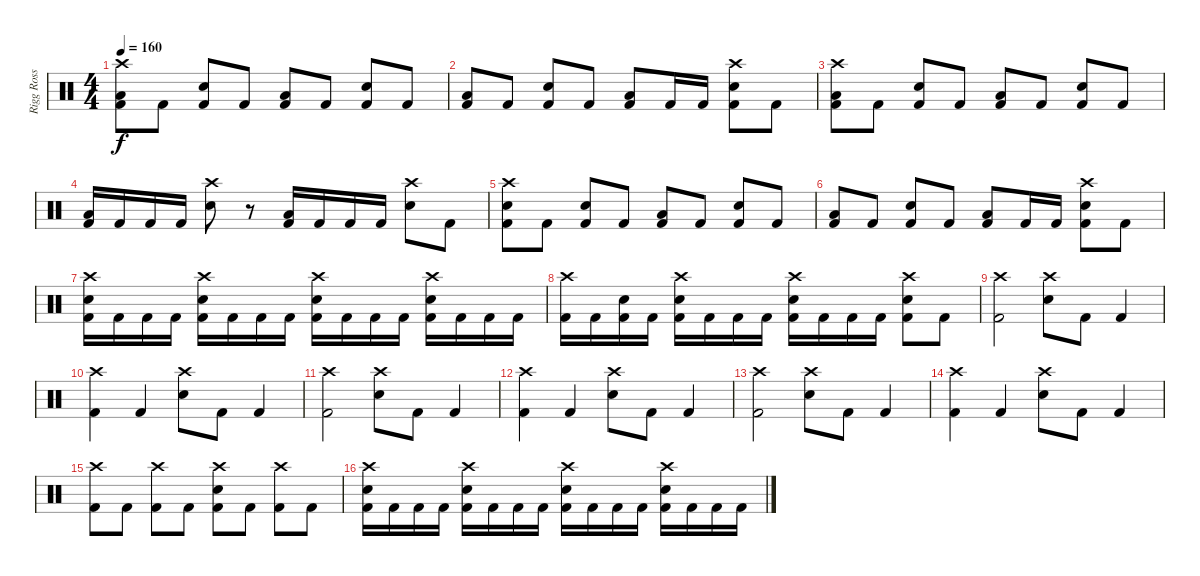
\track ("Rigg Ross" "Rigg Ross") {instrument percussion}
\staff {score}
\articulation defaults
\ts (4 4)
\tempo 160
\clef neutral
\ks c
("Crash high (hit)" "Low Tom (hit)" "Kick (hit) 2").8{dy f} "Kick (hit) 2".8 ("Electric Snare (hit)" "Kick (hit) 2").8 "Kick (hit) 2".8 ("Low Tom (hit)" "Kick (hit) 2").8 "Kick (hit) 2".8 ("Electric Snare (hit)" "Kick (hit) 2").8 "Kick (hit) 2".8 |
("Low Tom (hit)" "Kick (hit) 2").8 "Kick (hit) 2".8 ("Electric Snare (hit)" "Kick (hit) 2").8 "Kick (hit) 2".8 ("Low Tom (hit)" "Kick (hit) 2").8 "Kick (hit) 2".16 "Kick (hit) 2".16 ("Crash high (hit)" "Electric Snare (hit)" "Kick (hit) 2").8 "Kick (hit) 2".8 |
("Crash high (hit)" "Low Tom (hit)" "Kick (hit) 2").8 "Kick (hit) 2".8 ("Electric Snare (hit)" "Kick (hit) 2").8 "Kick (hit) 2".8 ("Low Tom (hit)" "Kick (hit) 2").8 "Kick (hit) 2".8 ("Electric Snare (hit)" "Kick (hit) 2").8 "Kick (hit) 2".8 |
("Low Tom (hit)" "Kick (hit) 2").16 "Kick (hit) 2".16 "Kick (hit) 2".16 "Kick (hit) 2".16 ("Crash high (hit)" "Electric Snare (hit)").8 r.8 ("Low Tom (hit)" "Kick (hit) 2").16 "Kick (hit) 2".16 "Kick (hit) 2".16 "Kick (hit) 2".16 ("Crash high (hit)" "Electric Snare (hit)").8 "Kick (hit) 2".8 |
("Crash high (hit)" "Electric Snare (hit)" "Kick (hit) 2").8 "Kick (hit) 2".8 ("Electric Snare (hit)" "Kick (hit) 2").8 "Kick (hit) 2".8 ("Low Tom (hit)" "Kick (hit) 2").8 "Kick (hit) 2".8 ("Electric Snare (hit)" "Kick (hit) 2").8 "Kick (hit) 2".8 |
("Low Tom (hit)" "Kick (hit) 2").8 "Kick (hit) 2".8 ("Electric Snare (hit)" "Kick (hit) 2").8 "Kick (hit) 2".8 ("Low Tom (hit)" "Kick (hit) 2").8 "Kick (hit) 2".16 "Kick (hit) 2".16 ("Crash high (hit)" "Electric Snare (hit)" "Kick (hit) 2").8 "Kick (hit) 2".8 |
("Crash high (hit)" "Electric Snare (hit)" "Kick (hit) 2").16 "Kick (hit) 2".16 "Kick (hit) 2".16 "Kick (hit) 2".16 ("Crash high (hit)" "Electric Snare (hit)" "Kick (hit) 2").16 "Kick (hit) 2".16 "Kick (hit) 2".16 "Kick (hit) 2".16 ("Crash high (hit)" "Electric Snare (hit)" "Kick (hit) 2").16 "Kick (hit) 2".16 "Kick (hit) 2".16 "Kick (hit) 2".16 ("Crash high (hit)" "Electric Snare (hit)" "Kick (hit) 2").16 "Kick (hit) 2".16 "Kick (hit) 2".16 "Kick (hit) 2".16 |
("Crash high (hit)" "Kick (hit) 2").16 "Kick (hit) 2".16 ("Electric Snare (hit)" "Kick (hit) 2").16 "Kick (hit) 2".16 ("Crash high (hit)" "Electric Snare (hit)" "Kick (hit) 2").16 "Kick (hit) 2".16 "Kick (hit) 2".16 "Kick (hit) 2".16 ("Crash high (hit)" "Electric Snare (hit)" "Kick (hit) 2").16 "Kick (hit) 2".16 "Kick (hit) 2".16 "Kick (hit) 2".16 ("Crash high (hit)" "Electric Snare (hit)" "Kick (hit) 2").8 "Kick (hit) 2".8 |
("Crash high (hit)" "Kick (hit) 2").2 ("Crash high (hit)" "Electric Snare (hit)").8 "Kick (hit) 2".8 "Kick (hit) 2".4 |
("Crash high (hit)" "Kick (hit) 2").4 "Kick (hit) 2".4 ("Crash high (hit)" "Electric Snare (hit)").8 "Kick (hit) 2".8 "Kick (hit) 2".4 |
("Crash high (hit)" "Kick (hit) 2").2 ("Crash high (hit)" "Electric Snare (hit)").8 "Kick (hit) 2".8 "Kick (hit) 2".4 |
("Crash high (hit)" "Kick (hit) 2").4 "Kick (hit) 2".4 ("Crash high (hit)" "Electric Snare (hit)").8 "Kick (hit) 2".8 "Kick (hit) 2".4 |
("Crash high (hit)" "Kick (hit) 2").2 ("Crash high (hit)" "Electric Snare (hit)").8 "Kick (hit) 2".8 "Kick (hit) 2".4 |
("Crash high (hit)" "Kick (hit) 2").4 "Kick (hit) 2".4 ("Crash high (hit)" "Electric Snare (hit)").8 "Kick (hit) 2".8 "Kick (hit) 2".4 |
("Crash high (hit)" "Kick (hit) 2").8 "Kick (hit) 2".8 ("Crash high (hit)" "Kick (hit) 2").8 "Kick (hit) 2".8 ("Crash high (hit)" "Electric Snare (hit)" "Kick (hit) 2").8 "Kick (hit) 2".8 ("Crash high (hit)" "Kick (hit) 2").8 "Kick (hit) 2".8 |
("Crash high (hit)" "Electric Snare (hit)" "Kick (hit) 2").16 "Kick (hit) 2".16 "Kick (hit) 2".16 "Kick (hit) 2".16 ("Crash high (hit)" "Electric Snare (hit)" "Kick (hit) 2").16 "Kick (hit) 2".16 "Kick (hit) 2".16 "Kick (hit) 2".16 ("Crash high (hit)" "Electric Snare (hit)" "Kick (hit) 2").16 "Kick (hit) 2".16 "Kick (hit) 2".16 "Kick (hit) 2".16 ("Crash high (hit)" "Electric Snare (hit)" "Kick (hit) 2").16 "Kick (hit) 2".16 "Kick (hit) 2".16 "Kick (hit) 2".16
